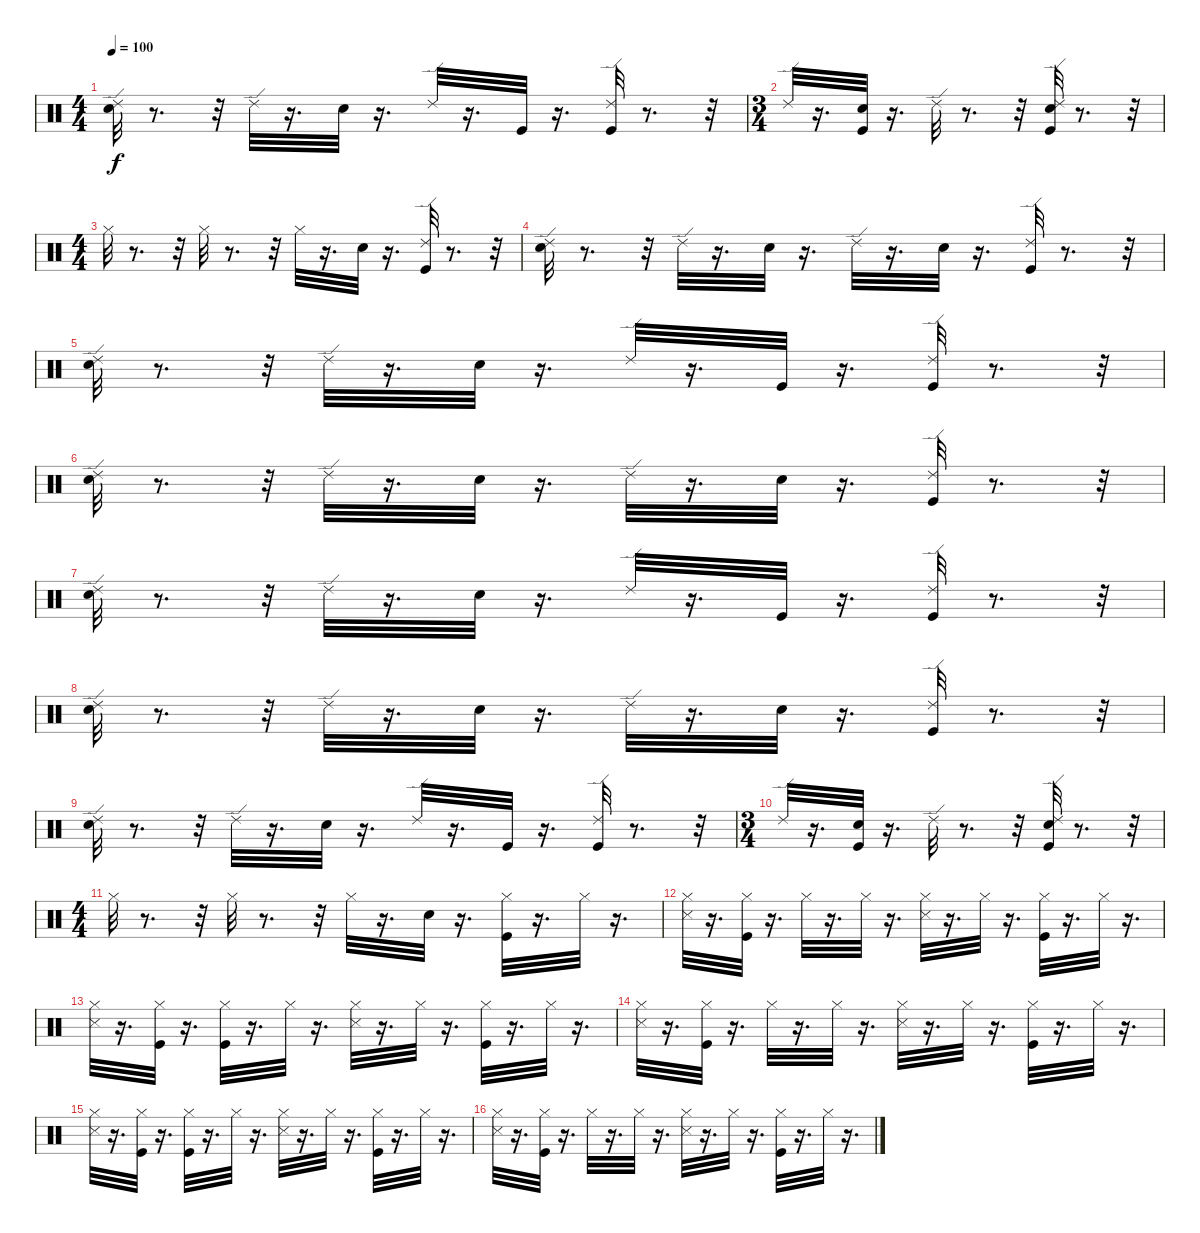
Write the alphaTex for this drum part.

\track "" {instrument percussion}
\staff {score}
\articulation defaults
\ts (4 4)
\tempo 100
\clef neutral
\ks c
("Ride (edge) 2" "Snare (hit) 2").32{dy f} r.8{d} r.32 "Ride (edge) 2".32 r.16{d} "Snare (hit) 2".32 r.16{d} "Ride (edge) 2".32 r.16{d} "Kick (hit)".32 r.16{d} ("Ride (edge) 2" "Kick (hit)").32 r.8{d} r.32 |
\ts (3 4)
"Ride (edge) 2".32 r.16{d} ("Kick (hit)" "Snare (hit) 2").32 r.16{d} "Ride (edge) 2".32 r.8{d} r.32 ("Snare (hit) 2" "Kick (hit)" "Ride (edge) 2").32 r.8{d} r.32 |
\ts (4 4)
"Hi-Hat (closed)".32 r.8{d} r.32 "Hi-Hat (closed)".32 r.8{d} r.32 "Hi-Hat (closed)".32 r.16{d} "Snare (hit) 2".32 r.16{d} ("Ride (edge) 2" "Kick (hit)").32 r.8{d} r.32 |
("Ride (edge) 2" "Snare (hit) 2").32 r.8{d} r.32 "Ride (edge) 2".32 r.16{d} "Snare (hit) 2".32 r.16{d} "Ride (edge) 2".32 r.16{d} "Snare (hit) 2".32 r.16{d} ("Ride (edge) 2" "Kick (hit)").32 r.8{d} r.32 |
("Snare (hit) 2" "Ride (edge) 2").32 r.8{d} r.32 "Ride (edge) 2".32 r.16{d} "Snare (hit) 2".32 r.16{d} "Ride (edge) 2".32 r.16{d} "Kick (hit)".32 r.16{d} ("Ride (edge) 2" "Kick (hit)").32 r.8{d} r.32 |
("Ride (edge) 2" "Snare (hit) 2").32 r.8{d} r.32 "Ride (edge) 2".32 r.16{d} "Snare (hit) 2".32 r.16{d} "Ride (edge) 2".32 r.16{d} "Snare (hit) 2".32 r.16{d} ("Ride (edge) 2" "Kick (hit)").32 r.8{d} r.32 |
("Snare (hit) 2" "Ride (edge) 2").32 r.8{d} r.32 "Ride (edge) 2".32 r.16{d} "Snare (hit) 2".32 r.16{d} "Ride (edge) 2".32 r.16{d} "Kick (hit)".32 r.16{d} ("Ride (edge) 2" "Kick (hit)").32 r.8{d} r.32 |
("Snare (hit) 2" "Ride (edge) 2").32 r.8{d} r.32 "Ride (edge) 2".32 r.16{d} "Snare (hit) 2".32 r.16{d} "Ride (edge) 2".32 r.16{d} "Snare (hit) 2".32 r.16{d} ("Kick (hit)" "Ride (edge) 2").32 r.8{d} r.32 |
("Snare (hit) 2" "Ride (edge) 2").32 r.8{d} r.32 "Ride (edge) 2".32 r.16{d} "Snare (hit) 2".32 r.16{d} "Ride (edge) 2".32 r.16{d} "Kick (hit)".32 r.16{d} ("Kick (hit)" "Ride (edge) 2").32 r.8{d} r.32 |
\ts (3 4)
"Ride (edge) 2".32 r.16{d} ("Snare (hit) 2" "Kick (hit)").32 r.16{d} "Ride (edge) 2".32 r.8{d} r.32 ("Snare (hit) 2" "Kick (hit)" "Ride (edge) 2").32 r.8{d} r.32 |
\ts (4 4)
"Hi-Hat (closed)".32 r.8{d} r.32 "Hi-Hat (closed)".32 r.8{d} r.32 "Hi-Hat (closed)".32 r.16{d} "Snare (hit) 2".32 r.16{d} ("Kick (hit)" "Hi-Hat (closed)").32 r.16{d} "Hi-Hat (closed)".32 r.16{d} |
("Snare (side stick) 3" "Hi-Hat (closed)").32 r.16{d} ("Kick (hit)" "Hi-Hat (closed)").32 r.16{d} "Hi-Hat (closed)".32 r.16{d} "Hi-Hat (closed)".32 r.16{d} ("Snare (side stick) 3" "Hi-Hat (closed)").32 r.16{d} "Hi-Hat (closed)".32 r.16{d} ("Kick (hit)" "Hi-Hat (closed)").32 r.16{d} "Hi-Hat (closed)".32 r.16{d} |
("Snare (side stick) 3" "Hi-Hat (closed)").32 r.16{d} ("Hi-Hat (closed)" "Kick (hit)").32 r.16{d} ("Hi-Hat (closed)" "Kick (hit)").32 r.16{d} "Hi-Hat (closed)".32 r.16{d} ("Snare (side stick) 3" "Hi-Hat (closed)").32 r.16{d} "Hi-Hat (closed)".32 r.16{d} ("Kick (hit)" "Hi-Hat (closed)").32 r.16{d} "Hi-Hat (closed)".32 r.16{d} |
("Snare (side stick) 3" "Hi-Hat (closed)").32 r.16{d} ("Kick (hit)" "Hi-Hat (closed)").32 r.16{d} "Hi-Hat (closed)".32 r.16{d} "Hi-Hat (closed)".32 r.16{d} ("Snare (side stick) 3" "Hi-Hat (closed)").32 r.16{d} "Hi-Hat (closed)".32 r.16{d} ("Kick (hit)" "Hi-Hat (closed)").32 r.16{d} "Hi-Hat (closed)".32 r.16{d} |
("Snare (side stick) 3" "Hi-Hat (closed)").32 r.16{d} ("Hi-Hat (closed)" "Kick (hit)").32 r.16{d} ("Hi-Hat (closed)" "Kick (hit)").32 r.16{d} "Hi-Hat (closed)".32 r.16{d} ("Snare (side stick) 3" "Hi-Hat (closed)").32 r.16{d} "Hi-Hat (closed)".32 r.16{d} ("Kick (hit)" "Hi-Hat (closed)").32 r.16{d} "Hi-Hat (closed)".32 r.16{d} |
("Snare (side stick) 3" "Hi-Hat (closed)").32 r.16{d} ("Kick (hit)" "Hi-Hat (closed)").32 r.16{d} "Hi-Hat (closed)".32 r.16{d} "Hi-Hat (closed)".32 r.16{d} ("Snare (side stick) 3" "Hi-Hat (closed)").32 r.16{d} "Hi-Hat (closed)".32 r.16{d} ("Kick (hit)" "Hi-Hat (closed)").32 r.16{d} "Hi-Hat (closed)".32 r.16{d}
